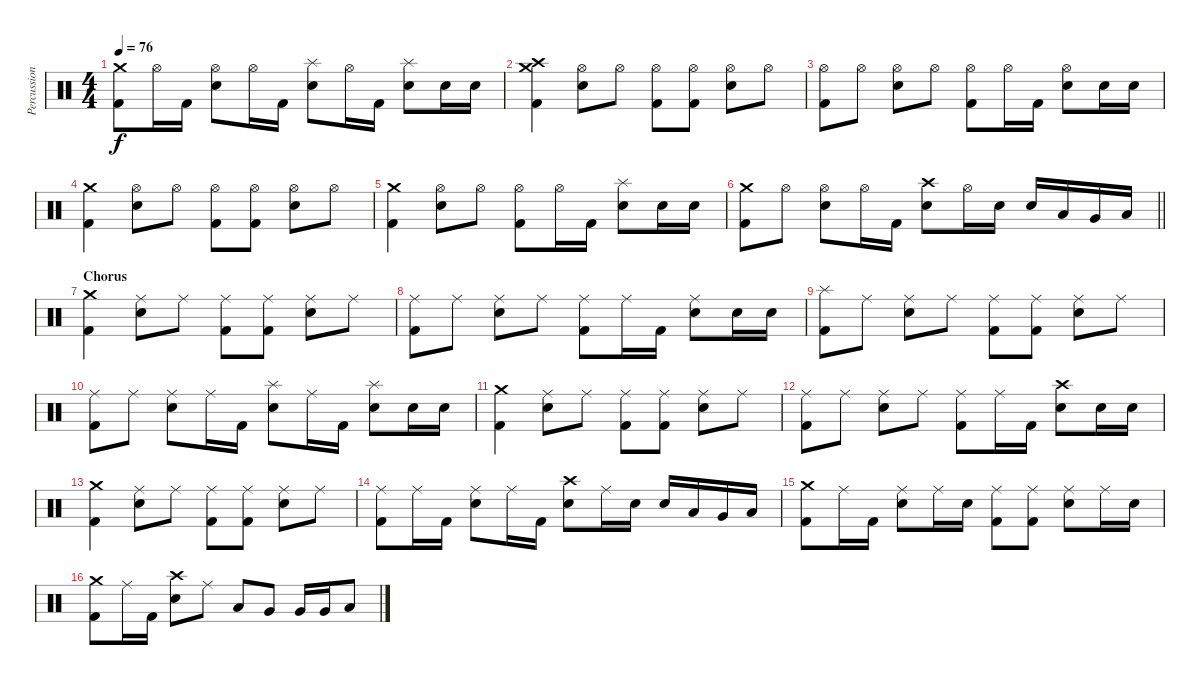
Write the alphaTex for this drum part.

\track ("Percussion" "Percussion") {instrument percussion}
\staff {score}
\articulation defaults
\ts (4 4)
\tempo 76
\clef neutral
\ks c
("Crash medium (hit)" "Kick (hit) 2").8{dy f} "Hi-Hat (open)".16 "Kick (hit) 2".16 ("Hi-Hat (open)" "Electric Snare (hit)").8 "Hi-Hat (open)".16 "Kick (hit) 2".16 ("Splash (hit)" "Electric Snare (hit)").8 "Hi-Hat (open)".16 "Kick (hit) 2".16 ("Splash (hit)" "Electric Snare (hit)").8 "Electric Snare (hit)".16 "Electric Snare (hit)".16 |
("Crash medium (hit)" "Crash high (hit)" "Kick (hit) 2").4 ("Hi-Hat (open)" "Electric Snare (hit)").8 "Hi-Hat (open)".8 ("Hi-Hat (open)" "Kick (hit) 2").8 ("Hi-Hat (open)" "Kick (hit) 2").8 ("Hi-Hat (open)" "Electric Snare (hit)").8 "Hi-Hat (open)".8 |
("Hi-Hat (open)" "Kick (hit) 2").8 "Hi-Hat (open)".8 ("Hi-Hat (open)" "Electric Snare (hit)").8 "Hi-Hat (open)".8 ("Hi-Hat (open)" "Kick (hit) 2").8 "Hi-Hat (open)".16 "Kick (hit) 2".16 ("Hi-Hat (open)" "Electric Snare (hit)").8 "Electric Snare (hit)".16 "Electric Snare (hit)".16 |
("Crash medium (hit)" "Kick (hit) 2").4 ("Hi-Hat (open)" "Electric Snare (hit)").8 "Hi-Hat (open)".8 ("Hi-Hat (open)" "Kick (hit) 2").8 ("Hi-Hat (open)" "Kick (hit) 2").8 ("Hi-Hat (open)" "Electric Snare (hit)").8 "Hi-Hat (open)".8 |
("Crash medium (hit)" "Kick (hit) 2").4 ("Hi-Hat (open)" "Electric Snare (hit)").8 "Hi-Hat (open)".8 ("Hi-Hat (open)" "Kick (hit) 2").8 "Hi-Hat (open)".16 "Kick (hit) 2".16 ("Splash (hit)" "Electric Snare (hit)").8 "Electric Snare (hit)".16 "Electric Snare (hit)".16 |
\barLineRight lightlight
("Crash medium (hit)" "Kick (hit) 2").8 "Hi-Hat (open)".8 ("Hi-Hat (open)" "Electric Snare (hit)").8 "Hi-Hat (open)".16 "Kick (hit) 2".16 ("Crash high (hit)" "Electric Snare (hit)").8 "Hi-Hat (open)".16 "Electric Snare (hit)".16 "Electric Snare (hit)".16 "Low Tom (hit)".16 "Very Low Tom (hit)".16 "Low Floor Tom (hit)".16 |
\section ("" "Chorus")
("Crash medium (hit)" "Kick (hit) 2").4 ("Ride (middle)" "Electric Snare (hit)").8 "Ride (middle)".8 ("Ride (middle)" "Kick (hit) 2").8 ("Ride (middle)" "Kick (hit) 2").8 ("Ride (middle)" "Electric Snare (hit)").8 "Ride (middle)".8 |
("Ride (middle)" "Kick (hit) 2").8 "Ride (middle)".8 ("Ride (middle)" "Electric Snare (hit)").8 "Ride (middle)".8 ("Ride (middle)" "Kick (hit) 2").8 "Ride (middle)".16 "Kick (hit) 2".16 ("Ride (middle)" "Electric Snare (hit)").8 "Electric Snare (hit)".16 "Electric Snare (hit)".16 |
("Splash (hit)" "Kick (hit) 2").8 "Ride (middle)".8 ("Ride (middle)" "Electric Snare (hit)").8 "Ride (middle)".8 ("Ride (middle)" "Kick (hit) 2").8 ("Ride (middle)" "Kick (hit) 2").8 ("Ride (middle)" "Electric Snare (hit)").8 "Ride (middle)".8 |
("Ride (middle)" "Kick (hit) 2").8 "Ride (middle)".8 ("Ride (middle)" "Electric Snare (hit)").8 "Ride (middle)".16 "Kick (hit) 2".16 ("Splash (hit)" "Electric Snare (hit)").8 "Ride (middle)".16 "Kick (hit) 2".16 ("Splash (hit)" "Electric Snare (hit)").8 "Electric Snare (hit)".16 "Electric Snare (hit)".16 |
("Crash medium (hit)" "Kick (hit) 2").4 ("Ride (middle)" "Electric Snare (hit)").8 "Ride (middle)".8 ("Ride (middle)" "Kick (hit) 2").8 ("Ride (middle)" "Kick (hit) 2").8 ("Ride (middle)" "Electric Snare (hit)").8 "Ride (middle)".8 |
("Ride (middle)" "Kick (hit) 2").8 "Ride (middle)".8 ("Ride (middle)" "Electric Snare (hit)").8 "Ride (middle)".8 ("Ride (middle)" "Kick (hit) 2").8 "Ride (middle)".16 "Kick (hit) 2".16 ("Crash high (hit)" "Electric Snare (hit)").8 "Electric Snare (hit)".16 "Electric Snare (hit)".16 |
("Crash medium (hit)" "Kick (hit) 2").4 ("Ride (middle)" "Electric Snare (hit)").8 "Ride (middle)".8 ("Ride (middle)" "Kick (hit) 2").8 ("Ride (middle)" "Kick (hit) 2").8 ("Ride (middle)" "Electric Snare (hit)").8 "Ride (middle)".8 |
("Ride (middle)" "Kick (hit) 2").8 "Ride (middle)".16 "Kick (hit) 2".16 ("Ride (middle)" "Electric Snare (hit)").8 "Ride (middle)".16 "Kick (hit) 2".16 ("Crash high (hit)" "Electric Snare (hit)").8 "Ride (middle)".16 "Electric Snare (hit)".16 "Electric Snare (hit)".16 "Low Tom (hit)".16 "Very Low Tom (hit)".16 "Low Floor Tom (hit)".16 |
("Crash medium (hit)" "Kick (hit) 2").8 "Ride (middle)".16 "Kick (hit) 2".16 ("Ride (middle)" "Electric Snare (hit)").8 "Ride (middle)".16 "Electric Snare (hit)".16 ("Ride (middle)" "Kick (hit) 2").8 ("Ride (middle)" "Kick (hit) 2").8 ("Ride (middle)" "Electric Snare (hit)").8 "Ride (middle)".16 "Electric Snare (hit)".16 |
("Crash medium (hit)" "Kick (hit) 2").8 "Ride (middle)".16 "Kick (hit) 2".16 ("Crash high (hit)" "Electric Snare (hit)").8 "Ride (middle)".8 "Low Tom (hit)".8 "Very Low Tom (hit)".8 "Very Low Tom (hit)".16 "Very Low Tom (hit)".16 "Low Floor Tom (hit)".8
